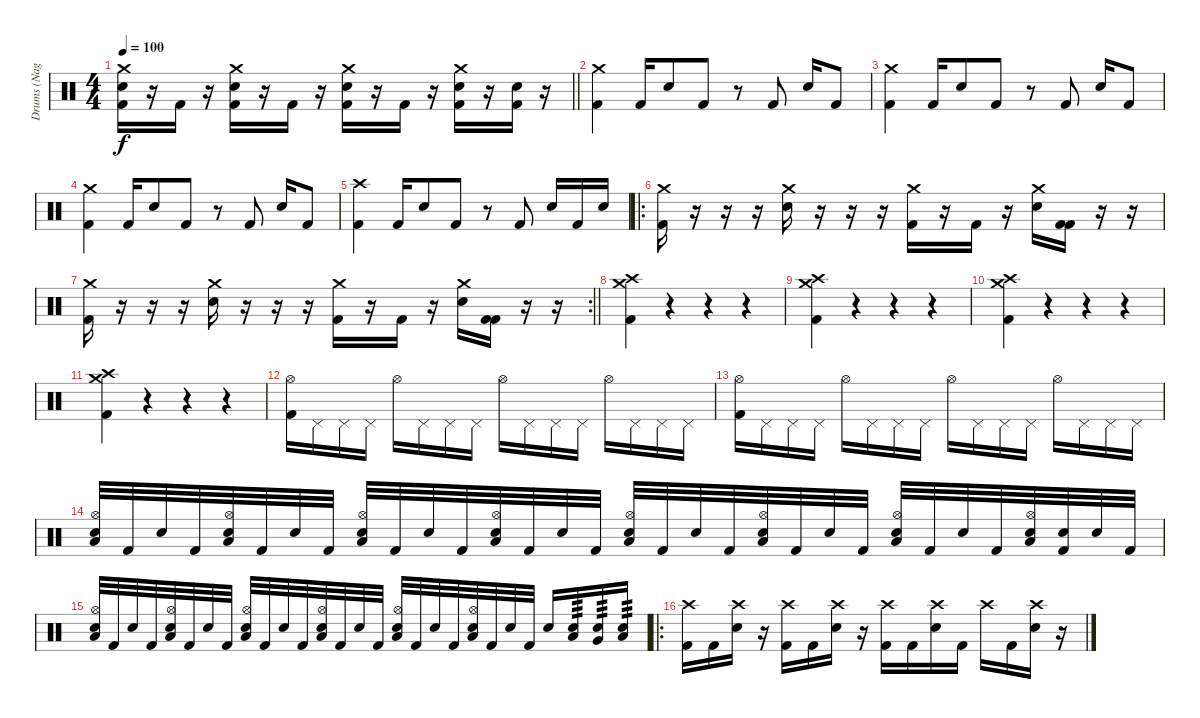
\track ("Drums (Nagy Dávid)" "Drums (Nag") {instrument percussion}
\staff {score}
\articulation defaults
\ts (4 4)
\tempo 100
\clef neutral
\barLineRight lightlight
\ks c
("Kick (hit) 2" "Electric Snare (hit)" "Crash medium (hit)").16{dy f} r.16 "Kick (hit) 2".16 r.16 ("Kick (hit) 2" "Electric Snare (hit)" "Crash medium (hit)").16 r.16 "Kick (hit) 2".16 r.16 ("Kick (hit) 2" "Electric Snare (hit)" "Crash medium (hit)").16 r.16 "Kick (hit) 2".16 r.16 ("Kick (hit) 2" "Electric Snare (hit)" "Crash medium (hit)").16 r.16 ("Kick (hit) 2" "Electric Snare (hit)").16 r.16 |
("Kick (hit) 2" "Crash medium (hit)").4 "Kick (hit) 2".16 "Electric Snare (hit)".8 "Kick (hit) 2".8 r.8 "Kick (hit) 2".8 "Electric Snare (hit)".16 "Kick (hit) 2".8 |
("Kick (hit) 2" "Crash medium (hit)").4 "Kick (hit) 2".16 "Electric Snare (hit)".8 "Kick (hit) 2".8 r.8 "Kick (hit) 2".8 "Electric Snare (hit)".16 "Kick (hit) 2".8 |
("Kick (hit) 2" "Crash medium (hit)").4 "Kick (hit) 2".16 "Electric Snare (hit)".8 "Kick (hit) 2".8 r.8 "Kick (hit) 2".8 "Electric Snare (hit)".16 "Kick (hit) 2".8 |
("Kick (hit) 2" "Crash high (hit)").4 "Kick (hit) 2".16 "Electric Snare (hit)".8 "Kick (hit) 2".8 r.8 "Kick (hit) 2".8 "Electric Snare (hit)".16 "Kick (hit) 2".16 "Electric Snare (hit)".16 |
\ro
("Kick (hit) 2" "Crash medium (hit)").16 r.16 r.16 r.16 ("Electric Snare (hit)" "Crash medium (hit)").16 r.16 r.16 r.16 ("Kick (hit) 2" "Crash medium (hit)").16 r.16 "Kick (hit) 2".16 r.16 ("Electric Snare (hit)" "Crash medium (hit)").16 ("Kick (hit) 2" "Kick (hit) 2").16 r.16 r.16 |
\rc 2
\barLineRight lightlight
("Kick (hit) 2" "Crash medium (hit)").16 r.16 r.16 r.16 ("Electric Snare (hit)" "Crash medium (hit)").16 r.16 r.16 r.16 ("Kick (hit) 2" "Crash medium (hit)").16 r.16 "Kick (hit) 2".16 r.16 ("Electric Snare (hit)" "Crash medium (hit)").16 ("Kick (hit) 2" "Kick (hit) 2").16 r.16 r.16 |
("Kick (hit) 2" "Crash medium (hit)" "Crash high (hit)").4 r.4 r.4 r.4 |
("Kick (hit) 2" "Crash medium (hit)" "Crash high (hit)").4 r.4 r.4 r.4 |
("Kick (hit) 2" "Crash medium (hit)" "Crash high (hit)").4 r.4 r.4 r.4 |
("Kick (hit) 2" "Crash medium (hit)" "Crash high (hit)").4 r.4 r.4 r.4 |
("Kick (hit) 2" "Hi-Hat (open)").16 "Pedal Hi-Hat (hit)".16 "Pedal Hi-Hat (hit)".16 "Pedal Hi-Hat (hit)".16 "Hi-Hat (open)".16 "Pedal Hi-Hat (hit)".16 "Pedal Hi-Hat (hit)".16 "Pedal Hi-Hat (hit)".16 "Hi-Hat (open)".16 "Pedal Hi-Hat (hit)".16 "Pedal Hi-Hat (hit)".16 "Pedal Hi-Hat (hit)".16 "Hi-Hat (open)".16 "Pedal Hi-Hat (hit)".16 "Pedal Hi-Hat (hit)".16 "Pedal Hi-Hat (hit)".16 |
("Kick (hit) 2" "Hi-Hat (open)").16 "Pedal Hi-Hat (hit)".16 "Pedal Hi-Hat (hit)".16 "Pedal Hi-Hat (hit)".16 "Hi-Hat (open)".16 "Pedal Hi-Hat (hit)".16 "Pedal Hi-Hat (hit)".16 "Pedal Hi-Hat (hit)".16 "Hi-Hat (open)".16 "Pedal Hi-Hat (hit)".16 "Pedal Hi-Hat (hit)".16 "Pedal Hi-Hat (hit)".16 "Hi-Hat (open)".16 "Pedal Hi-Hat (hit)".16 "Pedal Hi-Hat (hit)".16 "Pedal Hi-Hat (hit)".16 |
("Electric Snare (hit)" "Low Floor Tom (hit)" "Hi-Hat (open)").32 "Kick (hit) 2".32 "Electric Snare (hit)".32 "Kick (hit) 2".32 ("Electric Snare (hit)" "Low Floor Tom (hit)" "Hi-Hat (open)").32 "Kick (hit) 2".32 "Electric Snare (hit)".32 "Kick (hit) 2".32 ("Electric Snare (hit)" "Low Floor Tom (hit)" "Hi-Hat (open)").32 "Kick (hit) 2".32 "Electric Snare (hit)".32 "Kick (hit) 2".32 ("Electric Snare (hit)" "Low Floor Tom (hit)" "Hi-Hat (open)").32 "Kick (hit) 2".32 "Electric Snare (hit)".32 "Kick (hit) 2".32 ("Electric Snare (hit)" "Low Floor Tom (hit)" "Hi-Hat (open)").32 "Kick (hit) 2".32 "Electric Snare (hit)".32 "Kick (hit) 2".32 ("Electric Snare (hit)" "Low Floor Tom (hit)" "Hi-Hat (open)").32 "Kick (hit) 2".32 "Electric Snare (hit)".32 "Kick (hit) 2".32 ("Electric Snare (hit)" "Low Floor Tom (hit)" "Hi-Hat (open)").32 "Kick (hit) 2".32 "Electric Snare (hit)".32 "Kick (hit) 2".32 ("Electric Snare (hit)" "Low Floor Tom (hit)" "Hi-Hat (open)").32 ("Kick (hit) 2" "Snare (hit)").32 "Electric Snare (hit)".32 "Kick (hit) 2".32 |
("Electric Snare (hit)" "Low Floor Tom (hit)" "Hi-Hat (open)").32 "Kick (hit) 2".32 "Electric Snare (hit)".32 "Kick (hit) 2".32 ("Electric Snare (hit)" "Low Floor Tom (hit)" "Hi-Hat (open)").32 "Kick (hit) 2".32 "Electric Snare (hit)".32 "Kick (hit) 2".32 ("Electric Snare (hit)" "Low Floor Tom (hit)" "Hi-Hat (open)").32 "Kick (hit) 2".32 "Electric Snare (hit)".32 "Kick (hit) 2".32 ("Electric Snare (hit)" "Low Floor Tom (hit)" "Hi-Hat (open)").32 "Kick (hit) 2".32 "Electric Snare (hit)".32 "Kick (hit) 2".32 ("Electric Snare (hit)" "Low Floor Tom (hit)" "Hi-Hat (open)").32 "Kick (hit) 2".32 "Electric Snare (hit)".32 "Kick (hit) 2".32 ("Electric Snare (hit)" "Low Floor Tom (hit)" "Hi-Hat (open)").32 "Kick (hit) 2".32 "Electric Snare (hit)".32 "Kick (hit) 2".32 "Electric Snare (hit)".16 ("Electric Snare (hit)" "Low Tom (hit)").16{tp 3} ("Electric Snare (hit)" "Very Low Tom (hit)").16{tp 3} ("Electric Snare (hit)" "Low Floor Tom (hit)").16{tp 3} |
\ro
("Kick (hit) 2" "Crash high (hit)").16 "Kick (hit) 2".16 ("Electric Snare (hit)" "Crash high (hit)").16 r.16 ("Kick (hit) 2" "Crash high (hit)").16 "Kick (hit) 2".16 ("Electric Snare (hit)" "Crash high (hit)").16 r.16 ("Kick (hit) 2" "Crash high (hit)").16 "Kick (hit) 2".16 ("Electric Snare (hit)" "Crash high (hit)").16 "Kick (hit) 2".16 "Crash high (hit)".16 "Kick (hit) 2".16 ("Electric Snare (hit)" "Crash high (hit)").16 r.16
